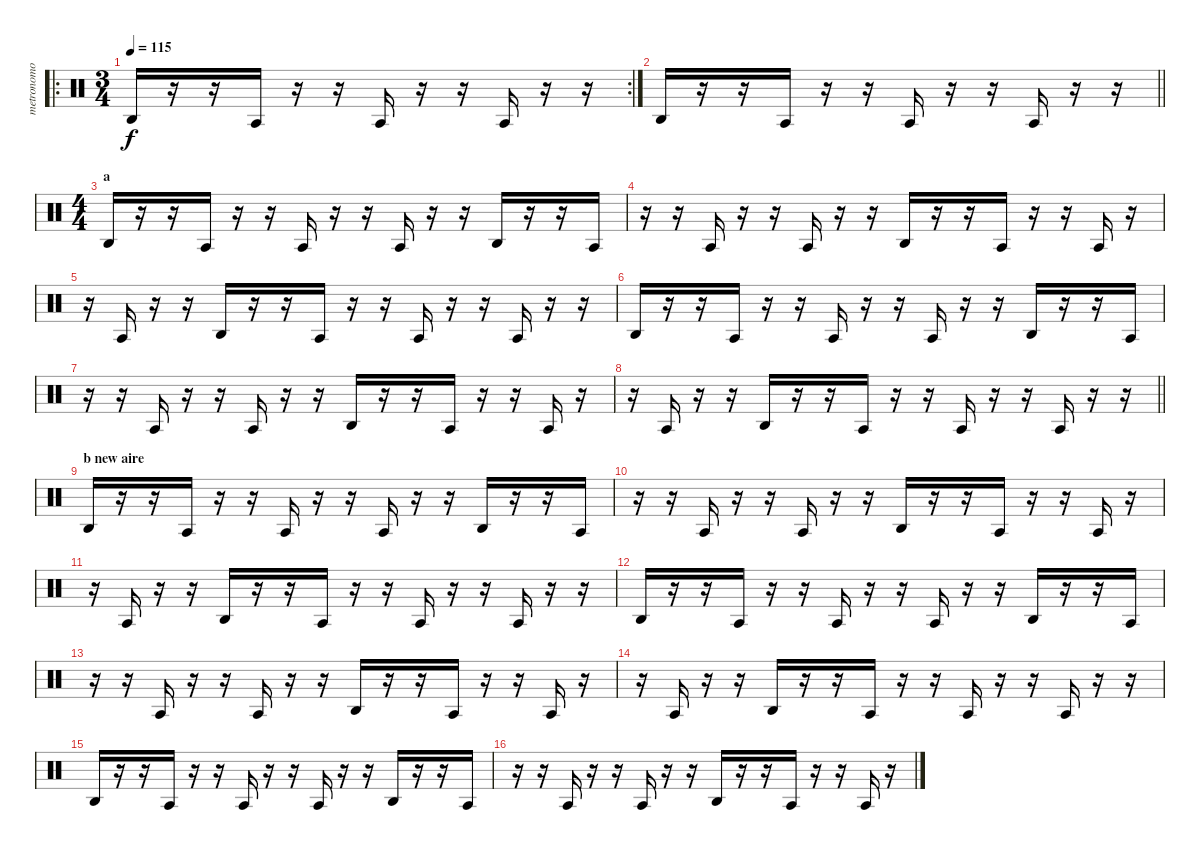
\track ("metronomo" "metronomo") {instrument percussion}
\staff {score}
\articulation defaults
\ro
\rc 2
\ts (3 4)
\tempo 115
\clef neutral
\ks c "Agogo high (hit)".16{dy f}
r.16 r.16 "Agogo tow (hit)".16 r.16 r.16 "Agogo tow (hit)".16 r.16 r.16 "Agogo tow (hit)".16 r.16 r.16 |
\barLineRight lightlight "Agogo high (hit)".16
r.16 r.16 "Agogo tow (hit)".16 r.16 r.16 "Agogo tow (hit)".16 r.16 r.16 "Agogo tow (hit)".16 r.16 r.16 |
\ts (4 4)
\section ("" "a")
"Agogo high (hit)".16 r.16 r.16 "Agogo tow (hit)".16 r.16 r.16 "Agogo tow (hit)".16 r.16 r.16 "Agogo tow (hit)".16 r.16 r.16 "Agogo high (hit)".16 r.16 r.16 "Agogo tow (hit)".16 |
r.16 r.16 "Agogo tow (hit)".16 r.16 r.16 "Agogo tow (hit)".16 r.16 r.16 "Agogo high (hit)".16 r.16 r.16 "Agogo tow (hit)".16 r.16 r.16 "Agogo tow (hit)".16 r.16 |
r.16 "Agogo tow (hit)".16 r.16 r.16 "Agogo high (hit)".16 r.16 r.16 "Agogo tow (hit)".16 r.16 r.16 "Agogo tow (hit)".16 r.16 r.16 "Agogo tow (hit)".16 r.16 r.16 |
"Agogo high (hit)".16 r.16 r.16 "Agogo tow (hit)".16 r.16 r.16 "Agogo tow (hit)".16 r.16 r.16 "Agogo tow (hit)".16 r.16 r.16 "Agogo high (hit)".16 r.16 r.16 "Agogo tow (hit)".16 |
r.16 r.16 "Agogo tow (hit)".16 r.16 r.16 "Agogo tow (hit)".16 r.16 r.16 "Agogo high (hit)".16 r.16 r.16 "Agogo tow (hit)".16 r.16 r.16 "Agogo tow (hit)".16 r.16 |
\barLineRight lightlight
r.16 "Agogo tow (hit)".16 r.16 r.16 "Agogo high (hit)".16 r.16 r.16 "Agogo tow (hit)".16 r.16 r.16 "Agogo tow (hit)".16 r.16 r.16 "Agogo tow (hit)".16 r.16 r.16 |
\section ("" "b new aire")
"Agogo high (hit)".16 r.16 r.16 "Agogo tow (hit)".16 r.16 r.16 "Agogo tow (hit)".16 r.16 r.16 "Agogo tow (hit)".16 r.16 r.16 "Agogo high (hit)".16 r.16 r.16 "Agogo tow (hit)".16 |
r.16 r.16 "Agogo tow (hit)".16 r.16 r.16 "Agogo tow (hit)".16 r.16 r.16 "Agogo high (hit)".16 r.16 r.16 "Agogo tow (hit)".16 r.16 r.16 "Agogo tow (hit)".16 r.16 |
r.16 "Agogo tow (hit)".16 r.16 r.16 "Agogo high (hit)".16 r.16 r.16 "Agogo tow (hit)".16 r.16 r.16 "Agogo tow (hit)".16 r.16 r.16 "Agogo tow (hit)".16 r.16 r.16 |
"Agogo high (hit)".16 r.16 r.16 "Agogo tow (hit)".16 r.16 r.16 "Agogo tow (hit)".16 r.16 r.16 "Agogo tow (hit)".16 r.16 r.16 "Agogo high (hit)".16 r.16 r.16 "Agogo tow (hit)".16 |
r.16 r.16 "Agogo tow (hit)".16 r.16 r.16 "Agogo tow (hit)".16 r.16 r.16 "Agogo high (hit)".16 r.16 r.16 "Agogo tow (hit)".16 r.16 r.16 "Agogo tow (hit)".16 r.16 |
r.16 "Agogo tow (hit)".16 r.16 r.16 "Agogo high (hit)".16 r.16 r.16 "Agogo tow (hit)".16 r.16 r.16 "Agogo tow (hit)".16 r.16 r.16 "Agogo tow (hit)".16 r.16 r.16 |
"Agogo high (hit)".16 r.16 r.16 "Agogo tow (hit)".16 r.16 r.16 "Agogo tow (hit)".16 r.16 r.16 "Agogo tow (hit)".16 r.16 r.16 "Agogo high (hit)".16 r.16 r.16 "Agogo tow (hit)".16 |
r.16 r.16 "Agogo tow (hit)".16 r.16 r.16 "Agogo tow (hit)".16 r.16 r.16 "Agogo high (hit)".16 r.16 r.16 "Agogo tow (hit)".16 r.16 r.16 "Agogo tow (hit)".16 r.16
